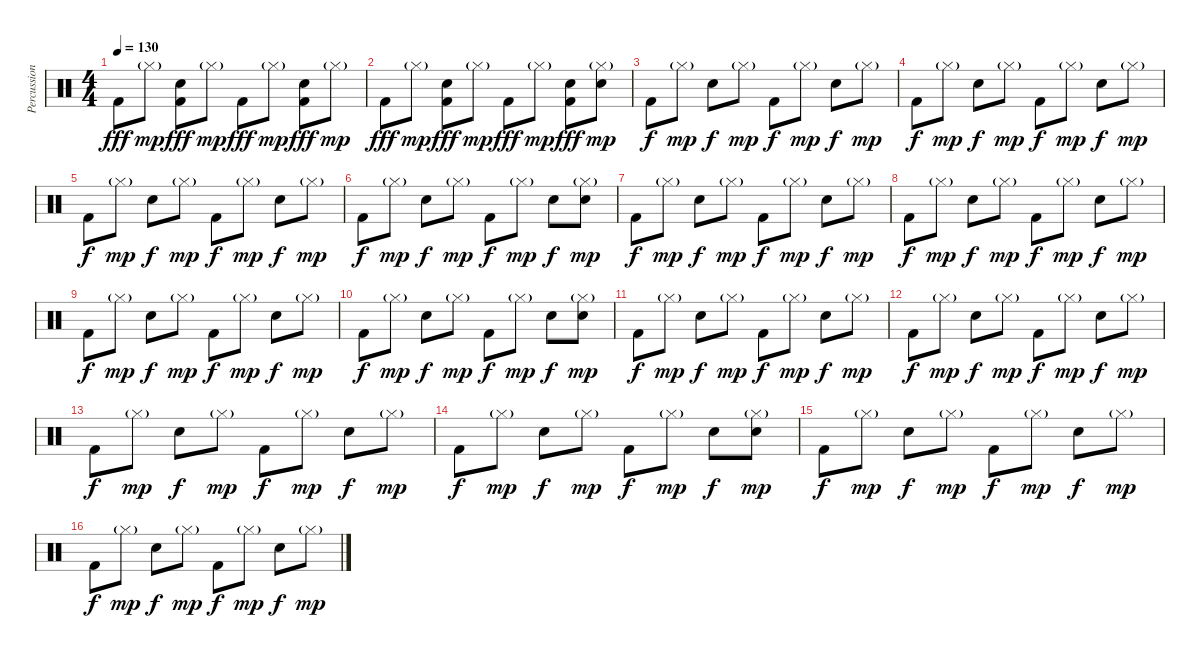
\track ("Percussion" "Percussion") {instrument percussion}
\staff {score}
\articulation defaults
\ts (4 4)
\tempo 130
\clef neutral
\ks c "Kick (hit) 2".8{dy fff} "Hi-Hat (closed)"{g}.8{dy mp}
("Electric Snare (hit)" "Kick (hit) 2").8{dy fff} "Hi-Hat (closed)"{g}.8{dy mp} "Kick (hit) 2".8{dy fff} "Hi-Hat (closed)"{g}.8{dy mp} ("Electric Snare (hit)" "Kick (hit) 2").8{dy fff} "Hi-Hat (closed)"{g}.8{dy mp} |
"Kick (hit) 2".8{dy fff} "Hi-Hat (closed)"{g}.8{dy mp} ("Electric Snare (hit)" "Kick (hit) 2").8{dy fff} "Hi-Hat (closed)"{g}.8{dy mp} "Kick (hit) 2".8{dy fff} "Hi-Hat (closed)"{g}.8{dy mp} ("Electric Snare (hit)" "Kick (hit) 2").8{dy fff} ("Hi-Hat (closed)"{g} "Electric Snare (hit)").8{dy mp} |
"Kick (hit) 2".8{dy f} "Hi-Hat (closed)"{g}.8{dy mp} "Electric Snare (hit)".8{dy f} "Hi-Hat (closed)"{g}.8{dy mp} "Kick (hit) 2".8{dy f} "Hi-Hat (closed)"{g}.8{dy mp} "Electric Snare (hit)".8{dy f} "Hi-Hat (closed)"{g}.8{dy mp} |
"Kick (hit) 2".8{dy f} "Hi-Hat (closed)"{g}.8{dy mp} "Electric Snare (hit)".8{dy f} "Hi-Hat (closed)"{g}.8{dy mp} "Kick (hit) 2".8{dy f} "Hi-Hat (closed)"{g}.8{dy mp} "Electric Snare (hit)".8{dy f} "Hi-Hat (closed)"{g}.8{dy mp} |
"Kick (hit) 2".8{dy f} "Hi-Hat (closed)"{g}.8{dy mp} "Electric Snare (hit)".8{dy f} "Hi-Hat (closed)"{g}.8{dy mp} "Kick (hit) 2".8{dy f} "Hi-Hat (closed)"{g}.8{dy mp} "Electric Snare (hit)".8{dy f} "Hi-Hat (closed)"{g}.8{dy mp} |
"Kick (hit) 2".8{dy f} "Hi-Hat (closed)"{g}.8{dy mp} "Electric Snare (hit)".8{dy f} "Hi-Hat (closed)"{g}.8{dy mp} "Kick (hit) 2".8{dy f} "Hi-Hat (closed)"{g}.8{dy mp} "Electric Snare (hit)".8{dy f} ("Hi-Hat (closed)"{g} "Electric Snare (hit)").8{dy mp} |
"Kick (hit) 2".8{dy f} "Hi-Hat (closed)"{g}.8{dy mp} "Electric Snare (hit)".8{dy f} "Hi-Hat (closed)"{g}.8{dy mp} "Kick (hit) 2".8{dy f} "Hi-Hat (closed)"{g}.8{dy mp} "Electric Snare (hit)".8{dy f} "Hi-Hat (closed)"{g}.8{dy mp} |
"Kick (hit) 2".8{dy f} "Hi-Hat (closed)"{g}.8{dy mp} "Electric Snare (hit)".8{dy f} "Hi-Hat (closed)"{g}.8{dy mp} "Kick (hit) 2".8{dy f} "Hi-Hat (closed)"{g}.8{dy mp} "Electric Snare (hit)".8{dy f} "Hi-Hat (closed)"{g}.8{dy mp} |
"Kick (hit) 2".8{dy f} "Hi-Hat (closed)"{g}.8{dy mp} "Electric Snare (hit)".8{dy f} "Hi-Hat (closed)"{g}.8{dy mp} "Kick (hit) 2".8{dy f} "Hi-Hat (closed)"{g}.8{dy mp} "Electric Snare (hit)".8{dy f} "Hi-Hat (closed)"{g}.8{dy mp} |
"Kick (hit) 2".8{dy f} "Hi-Hat (closed)"{g}.8{dy mp} "Electric Snare (hit)".8{dy f} "Hi-Hat (closed)"{g}.8{dy mp} "Kick (hit) 2".8{dy f} "Hi-Hat (closed)"{g}.8{dy mp} "Electric Snare (hit)".8{dy f} ("Hi-Hat (closed)"{g} "Electric Snare (hit)").8{dy mp} |
"Kick (hit) 2".8{dy f} "Hi-Hat (closed)"{g}.8{dy mp} "Electric Snare (hit)".8{dy f} "Hi-Hat (closed)"{g}.8{dy mp} "Kick (hit) 2".8{dy f} "Hi-Hat (closed)"{g}.8{dy mp} "Electric Snare (hit)".8{dy f} "Hi-Hat (closed)"{g}.8{dy mp} |
"Kick (hit) 2".8{dy f} "Hi-Hat (closed)"{g}.8{dy mp} "Electric Snare (hit)".8{dy f} "Hi-Hat (closed)"{g}.8{dy mp} "Kick (hit) 2".8{dy f} "Hi-Hat (closed)"{g}.8{dy mp} "Electric Snare (hit)".8{dy f} "Hi-Hat (closed)"{g}.8{dy mp} |
"Kick (hit) 2".8{dy f} "Hi-Hat (closed)"{g}.8{dy mp} "Electric Snare (hit)".8{dy f} "Hi-Hat (closed)"{g}.8{dy mp} "Kick (hit) 2".8{dy f} "Hi-Hat (closed)"{g}.8{dy mp} "Electric Snare (hit)".8{dy f} "Hi-Hat (closed)"{g}.8{dy mp} |
"Kick (hit) 2".8{dy f} "Hi-Hat (closed)"{g}.8{dy mp} "Electric Snare (hit)".8{dy f} "Hi-Hat (closed)"{g}.8{dy mp} "Kick (hit) 2".8{dy f} "Hi-Hat (closed)"{g}.8{dy mp} "Electric Snare (hit)".8{dy f} ("Hi-Hat (closed)"{g} "Electric Snare (hit)").8{dy mp} |
"Kick (hit) 2".8{dy f} "Hi-Hat (closed)"{g}.8{dy mp} "Electric Snare (hit)".8{dy f} "Hi-Hat (closed)"{g}.8{dy mp} "Kick (hit) 2".8{dy f} "Hi-Hat (closed)"{g}.8{dy mp} "Electric Snare (hit)".8{dy f} "Hi-Hat (closed)"{g}.8{dy mp} |
"Kick (hit) 2".8{dy f} "Hi-Hat (closed)"{g}.8{dy mp} "Electric Snare (hit)".8{dy f} "Hi-Hat (closed)"{g}.8{dy mp} "Kick (hit) 2".8{dy f} "Hi-Hat (closed)"{g}.8{dy mp} "Electric Snare (hit)".8{dy f} "Hi-Hat (closed)"{g}.8{dy mp}
